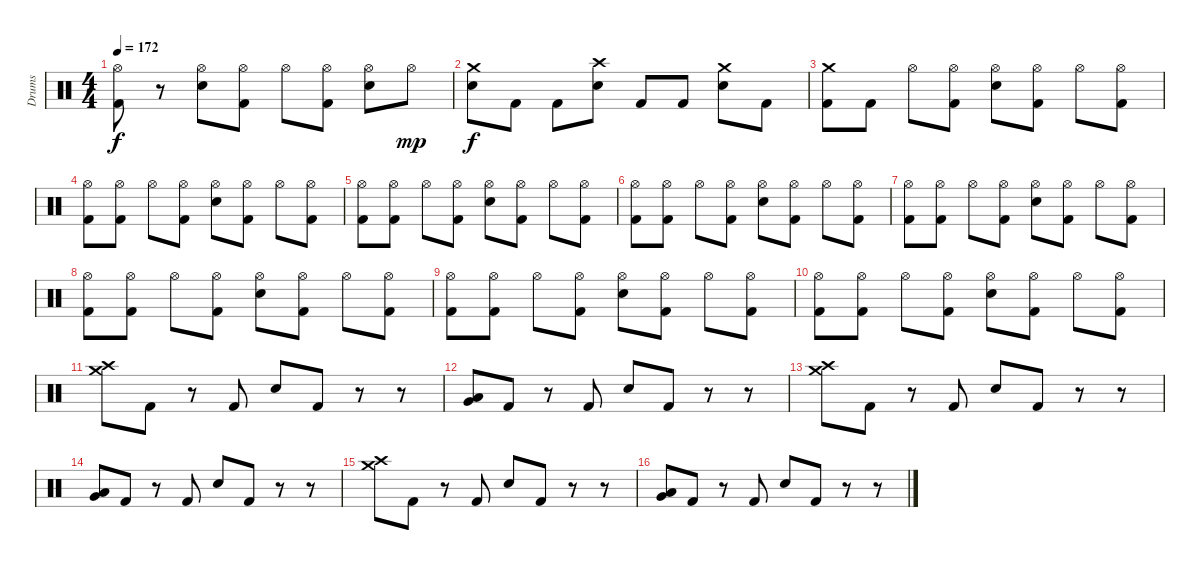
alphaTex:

\track ("Drums" "Drums") {instrument percussion}
\staff {score}
\articulation defaults
\ts (4 4)
\tempo 172
\clef neutral
\ks c
("Hi-Hat (open)" "Kick (hit) 2").8{dy f} r.8 ("Hi-Hat (open)" "Electric Snare (hit)").8 ("Hi-Hat (open)" "Kick (hit) 2").8 "Hi-Hat (open)".8 ("Hi-Hat (open)" "Kick (hit) 2").8 ("Hi-Hat (open)" "Electric Snare (hit)").8 "Hi-Hat (open)".8{dy mp} |
("Crash medium (hit)" "Electric Snare (hit)").8{dy f} "Kick (hit) 2".8 "Kick (hit) 2".8 ("Crash high (hit)" "Electric Snare (hit)").8 "Kick (hit) 2".8 "Kick (hit) 2".8 ("Crash medium (hit)" "Electric Snare (hit)").8 "Kick (hit) 2".8 |
("Crash medium (hit)" "Kick (hit) 2").8 "Kick (hit) 2".8 "Hi-Hat (open)".8 ("Hi-Hat (open)" "Kick (hit) 2").8 ("Hi-Hat (open)" "Electric Snare (hit)").8 ("Hi-Hat (open)" "Kick (hit) 2").8 "Hi-Hat (open)".8 ("Hi-Hat (open)" "Kick (hit) 2").8 |
("Hi-Hat (open)" "Kick (hit) 2").8 ("Hi-Hat (open)" "Kick (hit) 2").8 "Hi-Hat (open)".8 ("Hi-Hat (open)" "Kick (hit) 2").8 ("Hi-Hat (open)" "Electric Snare (hit)").8 ("Hi-Hat (open)" "Kick (hit) 2").8 "Hi-Hat (open)".8 ("Hi-Hat (open)" "Kick (hit) 2").8 |
("Hi-Hat (open)" "Kick (hit) 2").8 ("Hi-Hat (open)" "Kick (hit) 2").8 "Hi-Hat (open)".8 ("Hi-Hat (open)" "Kick (hit) 2").8 ("Hi-Hat (open)" "Electric Snare (hit)").8 ("Hi-Hat (open)" "Kick (hit) 2").8 "Hi-Hat (open)".8 ("Hi-Hat (open)" "Kick (hit) 2").8 |
("Hi-Hat (open)" "Kick (hit) 2").8 ("Hi-Hat (open)" "Kick (hit) 2").8 "Hi-Hat (open)".8 ("Hi-Hat (open)" "Kick (hit) 2").8 ("Hi-Hat (open)" "Electric Snare (hit)").8 ("Hi-Hat (open)" "Kick (hit) 2").8 "Hi-Hat (open)".8 ("Hi-Hat (open)" "Kick (hit) 2").8 |
("Hi-Hat (open)" "Kick (hit) 2").8 ("Hi-Hat (open)" "Kick (hit) 2").8 "Hi-Hat (open)".8 ("Hi-Hat (open)" "Kick (hit) 2").8 ("Hi-Hat (open)" "Electric Snare (hit)").8 ("Hi-Hat (open)" "Kick (hit) 2").8 "Hi-Hat (open)".8 ("Hi-Hat (open)" "Kick (hit) 2").8 |
("Hi-Hat (open)" "Kick (hit) 2").8 ("Hi-Hat (open)" "Kick (hit) 2").8 "Hi-Hat (open)".8 ("Hi-Hat (open)" "Kick (hit) 2").8 ("Hi-Hat (open)" "Electric Snare (hit)").8 ("Hi-Hat (open)" "Kick (hit) 2").8 "Hi-Hat (open)".8 ("Hi-Hat (open)" "Kick (hit) 2").8 |
("Hi-Hat (open)" "Kick (hit) 2").8 ("Hi-Hat (open)" "Kick (hit) 2").8 "Hi-Hat (open)".8 ("Hi-Hat (open)" "Kick (hit) 2").8 ("Hi-Hat (open)" "Electric Snare (hit)").8 ("Hi-Hat (open)" "Kick (hit) 2").8 "Hi-Hat (open)".8 ("Hi-Hat (open)" "Kick (hit) 2").8 |
("Hi-Hat (open)" "Kick (hit) 2").8 ("Hi-Hat (open)" "Kick (hit) 2").8 "Hi-Hat (open)".8 ("Hi-Hat (open)" "Kick (hit) 2").8 ("Hi-Hat (open)" "Electric Snare (hit)").8 ("Hi-Hat (open)" "Kick (hit) 2").8 "Hi-Hat (open)".8 ("Hi-Hat (open)" "Kick (hit) 2").8 |
("Crash medium (hit)" "Crash high (hit)").8 "Kick (hit) 2".8 r.8 "Kick (hit) 2".8 "Electric Snare (hit)".8 "Kick (hit) 2".8 r.8 r.8 |
("Very Low Tom (hit)" "Low Floor Tom (hit)").8 "Kick (hit) 2".8 r.8 "Kick (hit) 2".8 "Electric Snare (hit)".8 "Kick (hit) 2".8 r.8 r.8 |
("Crash medium (hit)" "Crash high (hit)").8 "Kick (hit) 2".8 r.8 "Kick (hit) 2".8 "Electric Snare (hit)".8 "Kick (hit) 2".8 r.8 r.8 |
("Very Low Tom (hit)" "Low Floor Tom (hit)").8 "Kick (hit) 2".8 r.8 "Kick (hit) 2".8 "Electric Snare (hit)".8 "Kick (hit) 2".8 r.8 r.8 |
("Crash medium (hit)" "Crash high (hit)").8 "Kick (hit) 2".8 r.8 "Kick (hit) 2".8 "Electric Snare (hit)".8 "Kick (hit) 2".8 r.8 r.8 |
("Very Low Tom (hit)" "Low Floor Tom (hit)").8 "Kick (hit) 2".8 r.8 "Kick (hit) 2".8 "Electric Snare (hit)".8 "Kick (hit) 2".8 r.8 r.8
